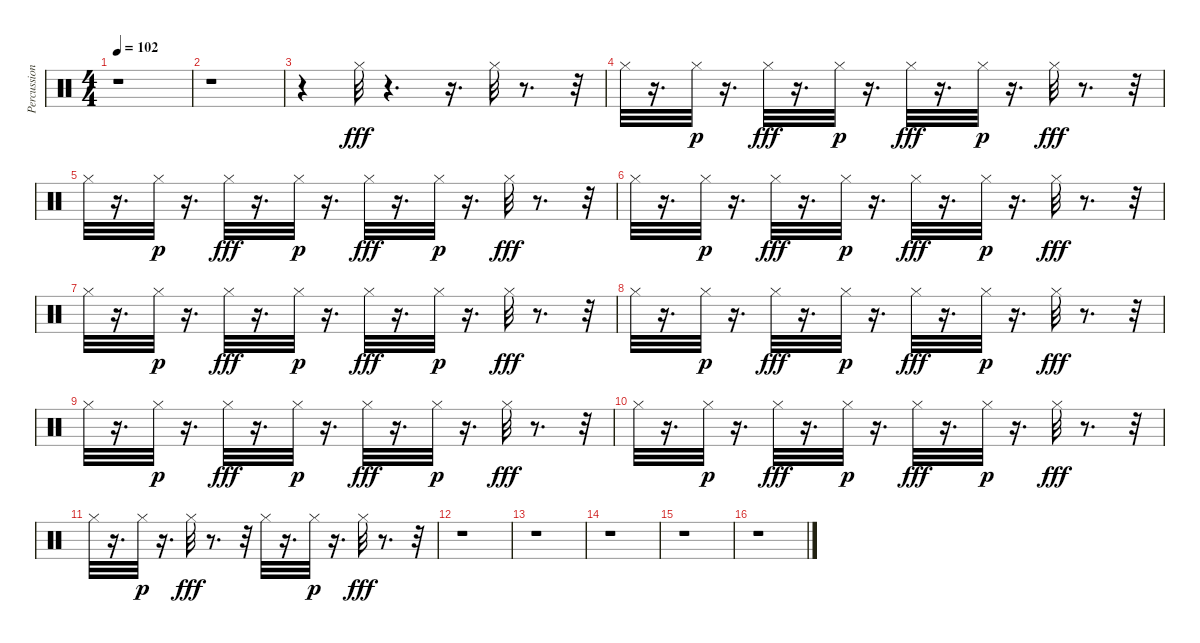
\track ("Percussion" "Percussion") {instrument percussion}
\staff {score}
\articulation defaults
\ts (4 4)
\tempo 102
\clef neutral
\ks c
r.1{dy fff} |
r.1 |
r.4 "Hi-Hat (closed)".32 r.4{d} r.16{d} "Hi-Hat (closed)".32 r.8{d} r.32 |
"Hi-Hat (closed)".32 r.16{d} "Hi-Hat (closed)".32{dy p} r.16{d} "Hi-Hat (closed)".32{dy fff} r.16{d} "Hi-Hat (closed)".32{dy p} r.16{d} "Hi-Hat (closed)".32{dy fff} r.16{d} "Hi-Hat (closed)".32{dy p} r.16{d} "Hi-Hat (closed)".32{dy fff} r.8{d} r.32 |
"Hi-Hat (closed)".32 r.16{d} "Hi-Hat (closed)".32{dy p} r.16{d} "Hi-Hat (closed)".32{dy fff} r.16{d} "Hi-Hat (closed)".32{dy p} r.16{d} "Hi-Hat (closed)".32{dy fff} r.16{d} "Hi-Hat (closed)".32{dy p} r.16{d} "Hi-Hat (closed)".32{dy fff} r.8{d} r.32 |
"Hi-Hat (closed)".32 r.16{d} "Hi-Hat (closed)".32{dy p} r.16{d} "Hi-Hat (closed)".32{dy fff} r.16{d} "Hi-Hat (closed)".32{dy p} r.16{d} "Hi-Hat (closed)".32{dy fff} r.16{d} "Hi-Hat (closed)".32{dy p} r.16{d} "Hi-Hat (closed)".32{dy fff} r.8{d} r.32 |
"Hi-Hat (closed)".32 r.16{d} "Hi-Hat (closed)".32{dy p} r.16{d} "Hi-Hat (closed)".32{dy fff} r.16{d} "Hi-Hat (closed)".32{dy p} r.16{d} "Hi-Hat (closed)".32{dy fff} r.16{d} "Hi-Hat (closed)".32{dy p} r.16{d} "Hi-Hat (closed)".32{dy fff} r.8{d} r.32 |
"Hi-Hat (closed)".32 r.16{d} "Hi-Hat (closed)".32{dy p} r.16{d} "Hi-Hat (closed)".32{dy fff} r.16{d} "Hi-Hat (closed)".32{dy p} r.16{d} "Hi-Hat (closed)".32{dy fff} r.16{d} "Hi-Hat (closed)".32{dy p} r.16{d} "Hi-Hat (closed)".32{dy fff} r.8{d} r.32 |
"Hi-Hat (closed)".32 r.16{d} "Hi-Hat (closed)".32{dy p} r.16{d} "Hi-Hat (closed)".32{dy fff} r.16{d} "Hi-Hat (closed)".32{dy p} r.16{d} "Hi-Hat (closed)".32{dy fff} r.16{d} "Hi-Hat (closed)".32{dy p} r.16{d} "Hi-Hat (closed)".32{dy fff} r.8{d} r.32 |
"Hi-Hat (closed)".32 r.16{d} "Hi-Hat (closed)".32{dy p} r.16{d} "Hi-Hat (closed)".32{dy fff} r.16{d} "Hi-Hat (closed)".32{dy p} r.16{d} "Hi-Hat (closed)".32{dy fff} r.16{d} "Hi-Hat (closed)".32{dy p} r.16{d} "Hi-Hat (closed)".32{dy fff} r.8{d} r.32 |
"Hi-Hat (closed)".32 r.16{d} "Hi-Hat (closed)".32{dy p} r.16{d} "Hi-Hat (closed)".32{dy fff} r.8{d} r.32 "Hi-Hat (closed)".32 r.16{d} "Hi-Hat (closed)".32{dy p} r.16{d} "Hi-Hat (closed)".32{dy fff} r.8{d} r.32 |
r.1 |
r.1 |
r.1 |
r.1 |
r.1
